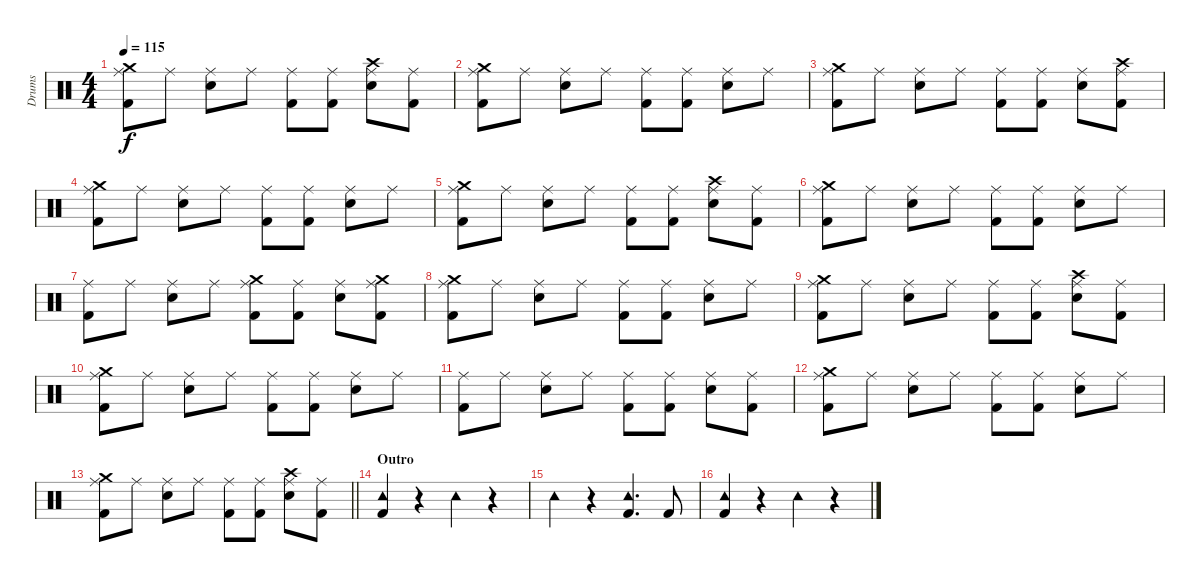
\track ("Drums" "Drums") {instrument percussion}
\staff {score}
\articulation defaults
\ts (4 4)
\tempo 115
\clef neutral
\ks c
("Crash medium (hit)" "Ride (middle)" "Kick (hit) 2").8{dy f} "Ride (middle)".8 ("Ride (middle)" "Snare (hit) 2").8 "Ride (middle)".8 ("Ride (middle)" "Kick (hit) 2").8 ("Ride (middle)" "Kick (hit) 2").8 ("Crash high (hit)" "Ride (middle)" "Snare (hit) 2").8 ("Ride (middle)" "Kick (hit) 2").8 |
("Crash medium (hit)" "Ride (middle)" "Kick (hit) 2").8 "Ride (middle)".8 ("Ride (middle)" "Snare (hit) 2").8 "Ride (middle)".8 ("Ride (middle)" "Kick (hit) 2").8 ("Ride (middle)" "Kick (hit) 2").8 ("Ride (middle)" "Snare (hit) 2").8 "Ride (middle)".8 |
("Crash medium (hit)" "Ride (middle)" "Kick (hit) 2").8 "Ride (middle)".8 ("Ride (middle)" "Snare (hit) 2").8 "Ride (middle)".8 ("Ride (middle)" "Kick (hit) 2").8 ("Ride (middle)" "Kick (hit) 2").8 ("Ride (middle)" "Snare (hit) 2").8 ("Crash high (hit)" "Ride (middle)" "Kick (hit) 2").8 |
("Crash medium (hit)" "Ride (middle)" "Kick (hit) 2").8 "Ride (middle)".8 ("Ride (middle)" "Snare (hit) 2").8 "Ride (middle)".8 ("Ride (middle)" "Kick (hit) 2").8 ("Ride (middle)" "Kick (hit) 2").8 ("Ride (middle)" "Snare (hit) 2").8 "Ride (middle)".8 |
("Crash medium (hit)" "Ride (middle)" "Kick (hit) 2").8 "Ride (middle)".8 ("Ride (middle)" "Snare (hit) 2").8 "Ride (middle)".8 ("Ride (middle)" "Kick (hit) 2").8 ("Ride (middle)" "Kick (hit) 2").8 ("Crash high (hit)" "Ride (middle)" "Snare (hit) 2").8 ("Ride (middle)" "Kick (hit) 2").8 |
("Crash medium (hit)" "Ride (middle)" "Kick (hit) 2").8 "Ride (middle)".8 ("Ride (middle)" "Snare (hit) 2").8 "Ride (middle)".8 ("Ride (middle)" "Kick (hit) 2").8 ("Ride (middle)" "Kick (hit) 2").8 ("Ride (middle)" "Snare (hit) 2").8 "Ride (middle)".8 |
("Ride (middle)" "Kick (hit) 2").8 "Ride (middle)".8 ("Ride (middle)" "Snare (hit) 2").8 "Ride (middle)".8 ("Crash medium (hit)" "Ride (middle)" "Kick (hit) 2").8 ("Ride (middle)" "Kick (hit) 2").8 ("Ride (middle)" "Snare (hit) 2").8 ("Crash medium (hit)" "Ride (middle)" "Kick (hit) 2").8 |
("Crash medium (hit)" "Ride (middle)" "Kick (hit) 2").8 "Ride (middle)".8 ("Ride (middle)" "Snare (hit) 2").8 "Ride (middle)".8 ("Ride (middle)" "Kick (hit) 2").8 ("Ride (middle)" "Kick (hit) 2").8 ("Ride (middle)" "Snare (hit) 2").8 "Ride (middle)".8 |
("Crash medium (hit)" "Ride (middle)" "Kick (hit) 2").8 "Ride (middle)".8 ("Ride (middle)" "Snare (hit) 2").8 "Ride (middle)".8 ("Ride (middle)" "Kick (hit) 2").8 ("Ride (middle)" "Kick (hit) 2").8 ("Crash high (hit)" "Ride (middle)" "Snare (hit) 2").8 ("Ride (middle)" "Kick (hit) 2").8 |
("Crash medium (hit)" "Ride (middle)" "Kick (hit) 2").8 "Ride (middle)".8 ("Ride (middle)" "Snare (hit) 2").8 "Ride (middle)".8 ("Ride (middle)" "Kick (hit) 2").8 ("Ride (middle)" "Kick (hit) 2").8 ("Ride (middle)" "Snare (hit) 2").8 "Ride (middle)".8 |
("Ride (middle)" "Kick (hit) 2").8 "Ride (middle)".8 ("Ride (middle)" "Snare (hit) 2").8 "Ride (middle)".8 ("Ride (middle)" "Kick (hit) 2").8 ("Ride (middle)" "Kick (hit) 2").8 ("Ride (middle)" "Snare (hit) 2").8 ("Ride (middle)" "Kick (hit) 2").8 |
("Crash medium (hit)" "Ride (middle)" "Kick (hit) 2").8 "Ride (middle)".8 ("Ride (middle)" "Snare (hit) 2").8 "Ride (middle)".8 ("Ride (middle)" "Kick (hit) 2").8 ("Ride (middle)" "Kick (hit) 2").8 ("Ride (middle)" "Snare (hit) 2").8 "Ride (middle)".8 |
\barLineRight lightlight
("Crash medium (hit)" "Ride (middle)" "Kick (hit) 2").8 "Ride (middle)".8 ("Ride (middle)" "Snare (hit) 2").8 "Ride (middle)".8 ("Ride (middle)" "Kick (hit) 2").8 ("Ride (middle)" "Kick (hit) 2").8 ("Crash high (hit)" "Ride (middle)" "Snare (hit) 2").8 ("Ride (middle)" "Kick (hit) 2").8 |
\section ("" "Outro")
("Tambourine (hit)" "Kick (hit) 2").4 r.4 "Tambourine (hit)".4 r.4 |
"Tambourine (hit)".4 r.4 ("Tambourine (hit)" "Kick (hit) 2").4{d} "Kick (hit) 2".8 |
("Tambourine (hit)" "Kick (hit) 2").4 r.4 "Tambourine (hit)".4 r.4
